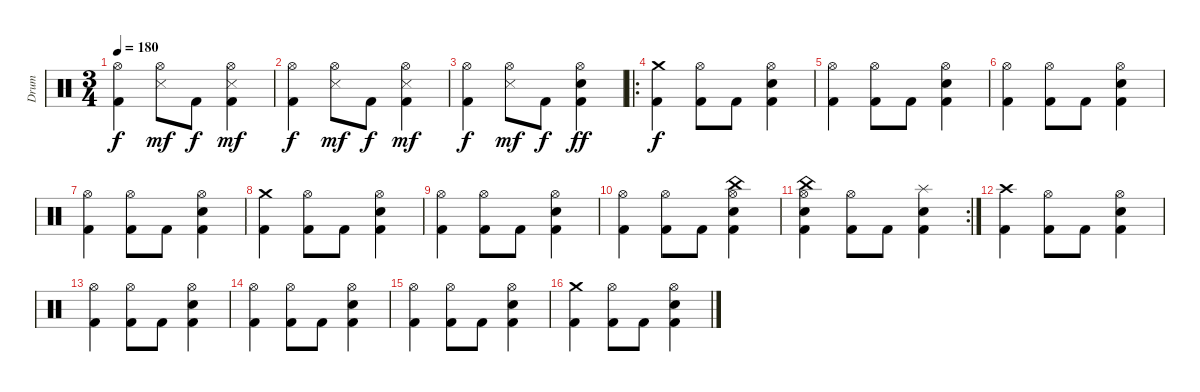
\track ("Drum" "Drum") {instrument percussion}
\staff {score}
\articulation defaults
\ts (3 4)
\tempo 180
\clef neutral
\ks c
("Hi-Hat (open)" "Kick (hit) 2").4{dy f} ("Hi-Hat (open)" "Snare (side stick) 3").8{dy mf} "Kick (hit) 2".8{dy f} ("Hi-Hat (open)" "Snare (side stick) 3" "Kick (hit) 2").4{dy mf} |
("Hi-Hat (open)" "Kick (hit) 2").4{dy f} ("Hi-Hat (open)" "Snare (side stick) 3").8{dy mf} "Kick (hit) 2".8{dy f} ("Hi-Hat (open)" "Snare (side stick) 3" "Kick (hit) 2").4{dy mf} |
("Hi-Hat (open)" "Kick (hit) 2").4{dy f} ("Hi-Hat (open)" "Snare (side stick) 3").8{dy mf} "Kick (hit) 2".8{dy f} ("Hi-Hat (open)" "Electric Snare (hit)" "Kick (hit) 2").4{dy ff} |
\ro
("Crash medium (hit)" "Kick (hit) 2").4{dy f} ("Hi-Hat (open)" "Kick (hit) 2").8 "Kick (hit) 2".8 ("Hi-Hat (open)" "Electric Snare (hit)" "Kick (hit) 2").4 |
("Hi-Hat (open)" "Kick (hit) 2").4 ("Hi-Hat (open)" "Kick (hit) 2").8 "Kick (hit) 2".8 ("Hi-Hat (open)" "Electric Snare (hit)" "Kick (hit) 2").4 |
("Hi-Hat (open)" "Kick (hit) 2").4 ("Hi-Hat (open)" "Kick (hit) 2").8 "Kick (hit) 2".8 ("Hi-Hat (open)" "Electric Snare (hit)" "Kick (hit) 2").4 |
("Hi-Hat (open)" "Kick (hit) 2").4 ("Hi-Hat (open)" "Kick (hit) 2").8 "Kick (hit) 2".8 ("Hi-Hat (open)" "Electric Snare (hit)" "Kick (hit) 2").4 |
("Crash medium (hit)" "Kick (hit) 2").4 ("Hi-Hat (open)" "Kick (hit) 2").8 "Kick (hit) 2".8 ("Hi-Hat (open)" "Electric Snare (hit)" "Kick (hit) 2").4 |
("Hi-Hat (open)" "Kick (hit) 2").4 ("Hi-Hat (open)" "Kick (hit) 2").8 "Kick (hit) 2".8 ("Hi-Hat (open)" "Electric Snare (hit)" "Kick (hit) 2").4 |
("Hi-Hat (open)" "Kick (hit) 2").4 ("Hi-Hat (open)" "Kick (hit) 2").8 "Kick (hit) 2".8 ("China (hit)" "Hi-Hat (open)" "Electric Snare (hit)" "Kick (hit) 2").4 |
\rc 2
("China (hit)" "Hi-Hat (open)" "Electric Snare (hit)" "Kick (hit) 2").4 ("Hi-Hat (open)" "Kick (hit) 2").8 "Kick (hit) 2".8 ("Splash (hit)" "Electric Snare (hit)" "Kick (hit) 2").4 |
("Crash high (hit)" "Kick (hit) 2").4 ("Hi-Hat (open)" "Kick (hit) 2").8 "Kick (hit) 2".8 ("Hi-Hat (open)" "Electric Snare (hit)" "Kick (hit) 2").4 |
("Hi-Hat (open)" "Kick (hit) 2").4 ("Hi-Hat (open)" "Kick (hit) 2").8 "Kick (hit) 2".8 ("Hi-Hat (open)" "Electric Snare (hit)" "Kick (hit) 2").4 |
("Hi-Hat (open)" "Kick (hit) 2").4 ("Hi-Hat (open)" "Kick (hit) 2").8 "Kick (hit) 2".8 ("Hi-Hat (open)" "Electric Snare (hit)" "Kick (hit) 2").4 |
("Hi-Hat (open)" "Kick (hit) 2").4 ("Hi-Hat (open)" "Kick (hit) 2").8 "Kick (hit) 2".8 ("Hi-Hat (open)" "Electric Snare (hit)" "Kick (hit) 2").4 |
("Crash medium (hit)" "Kick (hit) 2").4 ("Hi-Hat (open)" "Kick (hit) 2").8 "Kick (hit) 2".8 ("Hi-Hat (open)" "Electric Snare (hit)" "Kick (hit) 2").4
